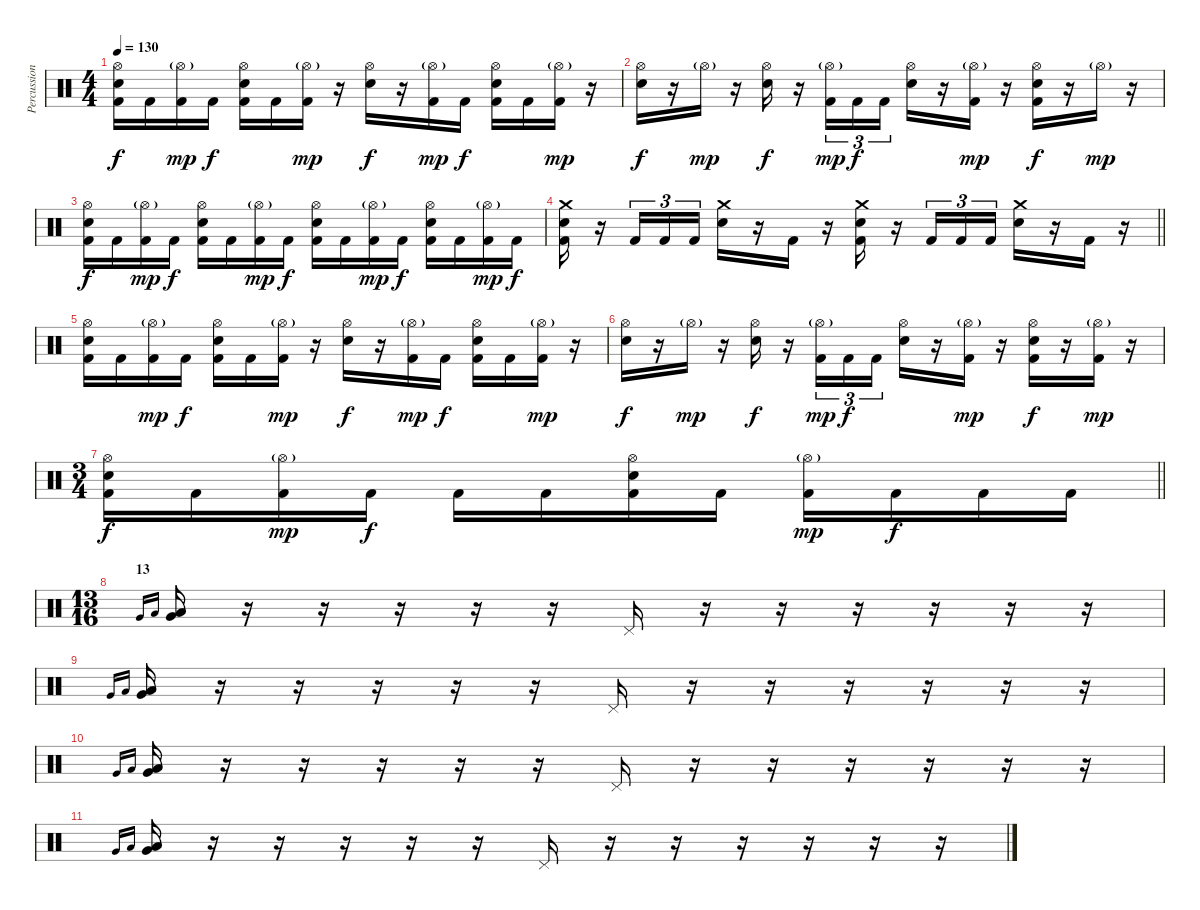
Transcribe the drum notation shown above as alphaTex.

\track ("Percussion" "Percussion") {instrument percussion}
\staff {score}
\articulation defaults
\ts (4 4)
\tempo 130
\clef neutral
\ks c
("Hi-Hat (open)" "Snare (hit) 2" "Kick (hit) 2").16{dy f} "Kick (hit) 2".16 ("Hi-Hat (open)"{g} "Kick (hit) 2").16{dy mp} "Kick (hit) 2".16{dy f} ("Hi-Hat (open)" "Snare (hit) 2" "Kick (hit) 2").16 "Kick (hit) 2".16 ("Hi-Hat (open)"{g} "Kick (hit) 2").16{dy mp} r.16 ("Hi-Hat (open)" "Snare (hit) 2").16{dy f} r.16 ("Hi-Hat (open)"{g} "Kick (hit) 2").16{dy mp} "Kick (hit) 2".16{dy f} ("Hi-Hat (open)" "Snare (hit) 2" "Kick (hit) 2").16 "Kick (hit) 2".16 ("Hi-Hat (open)"{g} "Kick (hit) 2").16{dy mp} r.16 |
("Hi-Hat (open)" "Snare (hit) 2").16{dy f} r.16 "Hi-Hat (open)"{g}.16{dy mp} r.16 ("Hi-Hat (open)" "Snare (hit) 2").16{dy f} r.16 ("Hi-Hat (open)"{g} "Kick (hit) 2").16{tu (3 2) dy mp} "Kick (hit) 2".16{tu (3 2) dy f} "Kick (hit) 2".16{tu (3 2)} ("Hi-Hat (open)" "Snare (hit) 2").16 r.16 ("Hi-Hat (open)"{g} "Kick (hit) 2").16{dy mp} r.16 ("Hi-Hat (open)" "Snare (hit) 2" "Kick (hit) 2").16{dy f} r.16 "Hi-Hat (open)"{g}.16{dy mp} r.16 |
("Hi-Hat (open)" "Snare (hit) 2" "Kick (hit) 2").16{dy f} "Kick (hit) 2".16 ("Hi-Hat (open)"{g} "Kick (hit) 2").16{dy mp} "Kick (hit) 2".16{dy f} ("Hi-Hat (open)" "Snare (hit) 2" "Kick (hit) 2").16 "Kick (hit) 2".16 ("Hi-Hat (open)"{g} "Kick (hit) 2").16{dy mp} "Kick (hit) 2".16{dy f} ("Hi-Hat (open)" "Snare (hit) 2" "Kick (hit) 2").16 "Kick (hit) 2".16 ("Hi-Hat (open)"{g} "Kick (hit) 2").16{dy mp} "Kick (hit) 2".16{dy f} ("Hi-Hat (open)" "Snare (hit) 2" "Kick (hit) 2").16 "Kick (hit) 2".16 ("Hi-Hat (open)"{g} "Kick (hit) 2").16{dy mp} "Kick (hit) 2".16{dy f} |
\barLineRight lightlight
("Crash medium (hit)" "Snare (hit) 2" "Kick (hit) 2").16 r.16 "Kick (hit) 2".16{tu (3 2)} "Kick (hit) 2".16{tu (3 2)} "Kick (hit) 2".16{tu (3 2)} ("Crash medium (hit)" "Snare (hit) 2").16 r.16 "Kick (hit) 2".16 r.16 ("Crash medium (hit)" "Snare (hit) 2" "Kick (hit) 2").16 r.16 "Kick (hit) 2".16{tu (3 2)} "Kick (hit) 2".16{tu (3 2)} "Kick (hit) 2".16{tu (3 2)} ("Crash medium (hit)" "Snare (hit) 2").16 r.16 "Kick (hit) 2".16 r.16 |
\section ("" "")
("Hi-Hat (open)" "Snare (hit) 2" "Kick (hit) 2").16 "Kick (hit) 2".16 ("Hi-Hat (open)"{g} "Kick (hit) 2").16{dy mp} "Kick (hit) 2".16{dy f} ("Hi-Hat (open)" "Snare (hit) 2" "Kick (hit) 2").16 "Kick (hit) 2".16 ("Hi-Hat (open)"{g} "Kick (hit) 2").16{dy mp} r.16 ("Hi-Hat (open)" "Snare (hit) 2").16{dy f} r.16 ("Hi-Hat (open)"{g} "Kick (hit) 2").16{dy mp} "Kick (hit) 2".16{dy f} ("Hi-Hat (open)" "Snare (hit) 2" "Kick (hit) 2").16 "Kick (hit) 2".16 ("Hi-Hat (open)"{g} "Kick (hit) 2").16{dy mp} r.16 |
("Hi-Hat (open)" "Snare (hit) 2").16{dy f} r.16 "Hi-Hat (open)"{g}.16{dy mp} r.16 ("Hi-Hat (open)" "Snare (hit) 2").16{dy f} r.16 ("Hi-Hat (open)"{g} "Kick (hit) 2").16{tu (3 2) dy mp} "Kick (hit) 2".16{tu (3 2) dy f} "Kick (hit) 2".16{tu (3 2)} ("Hi-Hat (open)" "Snare (hit) 2").16 r.16 ("Hi-Hat (open)"{g} "Kick (hit) 2").16{dy mp} r.16 ("Hi-Hat (open)" "Snare (hit) 2" "Kick (hit) 2").16{dy f} r.16 ("Hi-Hat (open)"{g} "Kick (hit) 2").16{dy mp} r.16 |
\ts (3 4)
\barLineRight lightlight
("Hi-Hat (open)" "Snare (hit) 2" "Kick (hit) 2").16{dy f} "Kick (hit) 2".16 ("Hi-Hat (open)"{g} "Kick (hit) 2").16{dy mp} "Kick (hit) 2".16{dy f} "Kick (hit) 2".16 "Kick (hit) 2".16 ("Hi-Hat (open)" "Snare (hit) 2" "Kick (hit) 2").16 "Kick (hit) 2".16 ("Hi-Hat (open)"{g} "Kick (hit) 2").16{dy mp} "Kick (hit) 2".16{dy f} "Kick (hit) 2".16 "Kick (hit) 2".16 |
\ts (13 16)
\section ("" "13")
"Very Low Tom (hit)".16{gr onbeat} "Low Floor Tom (hit)".16{gr onbeat} ("Very Low Tom (hit)" "Low Floor Tom (hit)").16 r.16 r.16 r.16 r.16 r.16 "Pedal Hi-Hat (hit)".16 r.16 r.16 r.16 r.16 r.16 r.16 |
"Very Low Tom (hit)".16{gr onbeat} "Low Floor Tom (hit)".16{gr onbeat} ("Very Low Tom (hit)" "Low Floor Tom (hit)").16 r.16 r.16 r.16 r.16 r.16 "Pedal Hi-Hat (hit)".16 r.16 r.16 r.16 r.16 r.16 r.16 |
"Very Low Tom (hit)".16{gr onbeat} "Low Floor Tom (hit)".16{gr onbeat} ("Very Low Tom (hit)" "Low Floor Tom (hit)").16 r.16 r.16 r.16 r.16 r.16 "Pedal Hi-Hat (hit)".16 r.16 r.16 r.16 r.16 r.16 r.16 |
"Very Low Tom (hit)".16{gr onbeat} "Low Floor Tom (hit)".16{gr onbeat} ("Very Low Tom (hit)" "Low Floor Tom (hit)").16 r.16 r.16 r.16 r.16 r.16 "Pedal Hi-Hat (hit)".16 r.16 r.16 r.16 r.16 r.16 r.16
